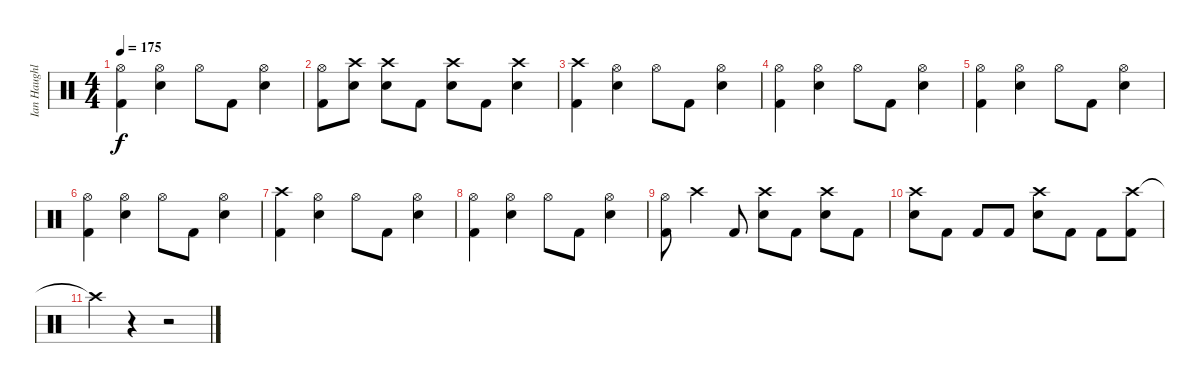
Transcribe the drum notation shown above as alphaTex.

\track ("Ian Haughland" "Ian Haughl") {instrument percussion}
\staff {score}
\articulation defaults
\ts (4 4)
\tempo 175
\clef neutral
\ks c
("Hi-Hat (open)" "Kick (hit) 2").4{dy f} ("Hi-Hat (open)" "Snare (hit) 2").4 "Hi-Hat (open)".8 "Kick (hit) 2".8 ("Hi-Hat (open)" "Snare (hit) 2").4 |
("Hi-Hat (open)" "Kick (hit) 2").8 ("Crash high (hit)" "Snare (hit) 2").8 ("Crash high (hit)" "Snare (hit) 2").8 "Kick (hit) 2".8 ("Crash high (hit)" "Snare (hit) 2").8 "Kick (hit) 2".8 ("Crash high (hit)" "Snare (hit) 2").4 |
("Crash high (hit)" "Kick (hit) 2").4 ("Hi-Hat (open)" "Snare (hit) 2").4 "Hi-Hat (open)".8 "Kick (hit) 2".8 ("Hi-Hat (open)" "Snare (hit) 2").4 |
("Hi-Hat (open)" "Kick (hit) 2").4 ("Hi-Hat (open)" "Snare (hit) 2").4 "Hi-Hat (open)".8 "Kick (hit) 2".8 ("Hi-Hat (open)" "Snare (hit) 2").4 |
("Hi-Hat (open)" "Kick (hit) 2").4 ("Hi-Hat (open)" "Snare (hit) 2").4 "Hi-Hat (open)".8 "Kick (hit) 2".8 ("Hi-Hat (open)" "Snare (hit) 2").4 |
("Hi-Hat (open)" "Kick (hit) 2").4 ("Hi-Hat (open)" "Snare (hit) 2").4 "Hi-Hat (open)".8 "Kick (hit) 2".8 ("Hi-Hat (open)" "Snare (hit) 2").4 |
("Crash high (hit)" "Kick (hit) 2").4 ("Hi-Hat (open)" "Snare (hit) 2").4 "Hi-Hat (open)".8 "Kick (hit) 2".8 ("Hi-Hat (open)" "Snare (hit) 2").4 |
("Hi-Hat (open)" "Kick (hit) 2").4 ("Hi-Hat (open)" "Snare (hit) 2").4 "Hi-Hat (open)".8 "Kick (hit) 2".8 ("Hi-Hat (open)" "Snare (hit) 2").4 |
("Hi-Hat (open)" "Kick (hit) 2").8 "Crash high (hit)".4 "Kick (hit) 2".8 ("Crash high (hit)" "Snare (hit) 2").8 "Kick (hit) 2".8 ("Crash high (hit)" "Snare (hit) 2").8 "Kick (hit) 2".8 |
("Crash high (hit)" "Snare (hit) 2").8 "Kick (hit) 2".8 "Kick (hit) 2".8 "Kick (hit) 2".8 ("Crash high (hit)" "Snare (hit) 2").8 "Kick (hit) 2".8 "Kick (hit) 2".8 ("Crash high (hit)" "Kick (hit) 2").8 |
"Crash high (hit)"{t}.4 r.4 r.2
